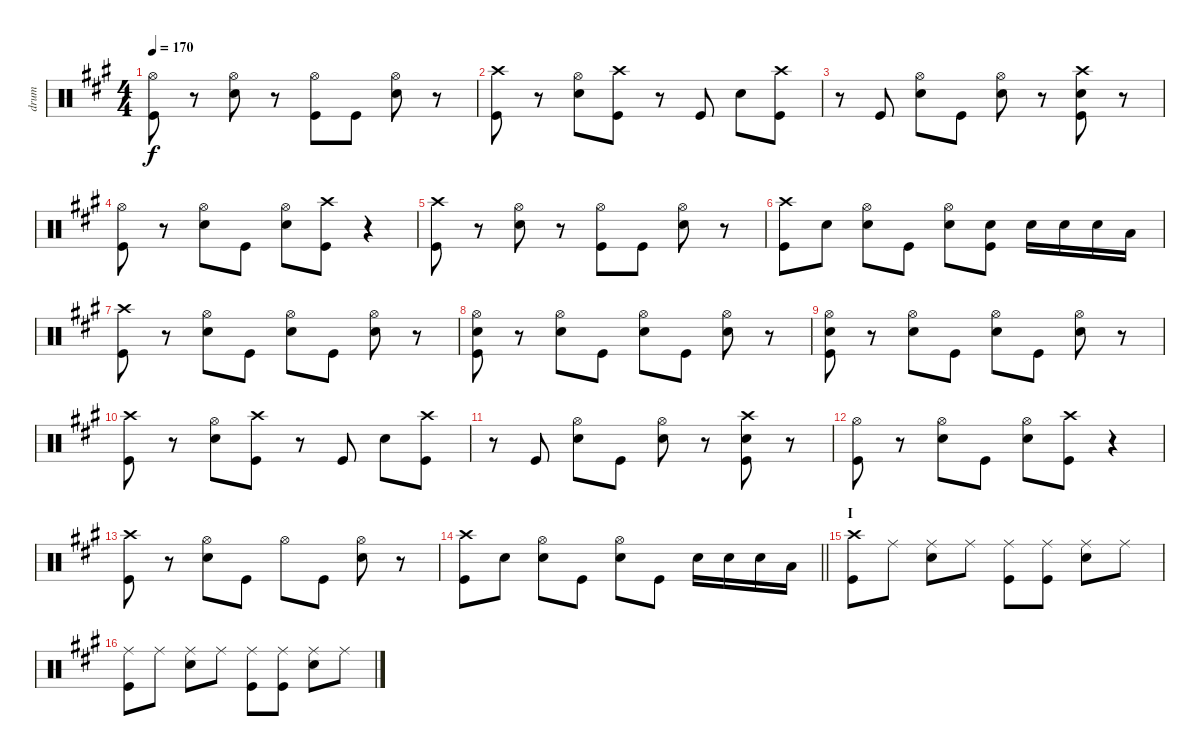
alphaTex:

\track ("drum" "drum") {instrument percussion}
\staff {score}
\articulation defaults
\ts (4 4)
\tempo 170
\clef neutral
\ks a
("Hi-Hat (open)" "Kick (hit)").8{dy f} r.8 ("Hi-Hat (open)" "Snare (hit) 2").8 r.8 ("Hi-Hat (open)" "Kick (hit)").8 "Kick (hit)".8 ("Hi-Hat (open)" "Snare (hit) 2").8 r.8 |
("Crash high (hit)" "Kick (hit)").8 r.8 ("Hi-Hat (open)" "Snare (hit) 2").8 ("Crash high (hit)" "Kick (hit)").8 r.8 "Kick (hit)".8 "Snare (hit) 2".8 ("Crash high (hit)" "Kick (hit)").8 |
r.8 "Kick (hit)".8 ("Hi-Hat (open)" "Snare (hit) 2").8 "Kick (hit)".8 ("Hi-Hat (open)" "Snare (hit) 2").8 r.8 ("Crash high (hit)" "Snare (hit) 2" "Kick (hit)").8 r.8 |
("Hi-Hat (open)" "Kick (hit)").8 r.8 ("Hi-Hat (open)" "Snare (hit) 2").8 "Kick (hit)".8 ("Hi-Hat (open)" "Snare (hit) 2").8 ("Crash high (hit)" "Kick (hit)").8 r.4 |
("Crash high (hit)" "Kick (hit)").8 r.8 ("Hi-Hat (open)" "Snare (hit) 2").8 r.8 ("Hi-Hat (open)" "Kick (hit)").8 "Kick (hit)".8 ("Hi-Hat (open)" "Snare (hit) 2").8 r.8 |
("Crash high (hit)" "Kick (hit)").8 "Snare (hit) 2".8 ("Hi-Hat (open)" "Snare (hit) 2").8 "Kick (hit)".8 ("Hi-Hat (open)" "Snare (hit) 2").8 ("Snare (hit) 2" "Kick (hit)").8 "Snare (hit) 2".16 "Snare (hit) 2".16 "Snare (hit) 2".16 "Low Tom (hit)".16 |
("Crash high (hit)" "Kick (hit)").8 r.8 ("Hi-Hat (open)" "Snare (hit) 2").8 "Kick (hit)".8 ("Hi-Hat (open)" "Snare (hit) 2").8 "Kick (hit)".8 ("Hi-Hat (open)" "Snare (hit) 2").8 r.8 |
("Hi-Hat (open)" "Snare (hit) 2" "Kick (hit)").8 r.8 ("Hi-Hat (open)" "Snare (hit) 2").8 "Kick (hit)".8 ("Hi-Hat (open)" "Snare (hit) 2").8 "Kick (hit)".8 ("Hi-Hat (open)" "Snare (hit) 2").8 r.8 |
("Hi-Hat (open)" "Snare (hit) 2" "Kick (hit)").8 r.8 ("Hi-Hat (open)" "Snare (hit) 2").8 "Kick (hit)".8 ("Hi-Hat (open)" "Snare (hit) 2").8 "Kick (hit)".8 ("Hi-Hat (open)" "Snare (hit) 2").8 r.8 |
("Crash high (hit)" "Kick (hit)").8 r.8 ("Hi-Hat (open)" "Snare (hit) 2").8 ("Crash high (hit)" "Kick (hit)").8 r.8 "Kick (hit)".8 "Snare (hit) 2".8 ("Crash high (hit)" "Kick (hit)").8 |
r.8 "Kick (hit)".8 ("Hi-Hat (open)" "Snare (hit) 2").8 "Kick (hit)".8 ("Hi-Hat (open)" "Snare (hit) 2").8 r.8 ("Crash high (hit)" "Snare (hit) 2" "Kick (hit)").8 r.8 |
("Hi-Hat (open)" "Kick (hit)").8 r.8 ("Hi-Hat (open)" "Snare (hit) 2").8 "Kick (hit)".8 ("Hi-Hat (open)" "Snare (hit) 2").8 ("Crash high (hit)" "Kick (hit)").8 r.4 |
("Crash high (hit)" "Kick (hit)").8 r.8 ("Hi-Hat (open)" "Snare (hit) 2").8 "Kick (hit)".8 "Hi-Hat (open)".8 "Kick (hit)".8 ("Hi-Hat (open)" "Snare (hit) 2").8 r.8 |
\barLineRight lightlight
("Crash high (hit)" "Kick (hit)").8 "Snare (hit) 2".8 ("Hi-Hat (open)" "Snare (hit) 2").8 "Kick (hit)".8 ("Hi-Hat (open)" "Snare (hit) 2").8 "Kick (hit)".8 "Snare (hit) 2".16 "Snare (hit) 2".16 "Snare (hit) 2".16 "Low Tom (hit)".16 |
\section ("" "I")
("Crash high (hit)" "Kick (hit)").8 "Ride (middle)".8 ("Ride (middle)" "Snare (hit) 2").8 "Ride (middle)".8 ("Ride (middle)" "Kick (hit)").8 ("Ride (middle)" "Kick (hit)").8 ("Ride (middle)" "Snare (hit) 2").8 "Ride (middle)".8 |
("Ride (middle)" "Kick (hit)").8 "Ride (middle)".8 ("Ride (middle)" "Snare (hit) 2").8 "Ride (middle)".8 ("Ride (middle)" "Kick (hit)").8 ("Ride (middle)" "Kick (hit)").8 ("Ride (middle)" "Snare (hit) 2").8 "Ride (middle)".8
